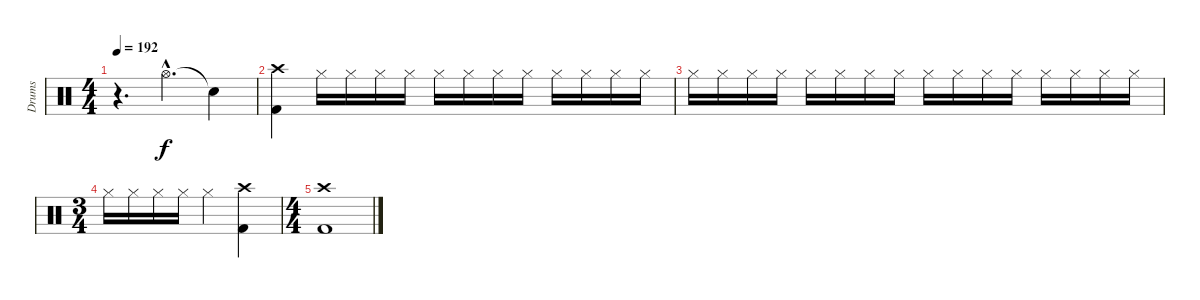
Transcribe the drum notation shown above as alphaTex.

\track ("Drums" "Drums") {instrument percussion}
\staff {score}
\articulation defaults
\ts (4 4)
\tempo 192
\clef neutral
\ks c
r.4{d dy f} "Hi-Hat (open)"{hac}.4{d} "Snare (hit)"{t}.4 |
("Crash high (hit)" "Kick (hit) 2").4 "Hi-Hat (closed)".16 "Hi-Hat (closed)".16 "Hi-Hat (closed)".16 "Hi-Hat (closed)".16 "Hi-Hat (closed)".16 "Hi-Hat (closed)".16 "Hi-Hat (closed)".16 "Hi-Hat (closed)".16 "Hi-Hat (closed)".16 "Hi-Hat (closed)".16 "Hi-Hat (closed)".16 "Hi-Hat (closed)".16 |
"Hi-Hat (closed)".16 "Hi-Hat (closed)".16 "Hi-Hat (closed)".16 "Hi-Hat (closed)".16 "Hi-Hat (closed)".16 "Hi-Hat (closed)".16 "Hi-Hat (closed)".16 "Hi-Hat (closed)".16 "Hi-Hat (closed)".16 "Hi-Hat (closed)".16 "Hi-Hat (closed)".16 "Hi-Hat (closed)".16 "Hi-Hat (closed)".16 "Hi-Hat (closed)".16 "Hi-Hat (closed)".16 "Hi-Hat (closed)".16 |
\ts (3 4)
"Hi-Hat (closed)".16 "Hi-Hat (closed)".16 "Hi-Hat (closed)".16 "Hi-Hat (closed)".16 "Hi-Hat (closed)".4 ("Crash high (hit)" "Kick (hit) 2").4 |
\ts (4 4)
("Crash high (hit)" "Kick (hit) 2").1
